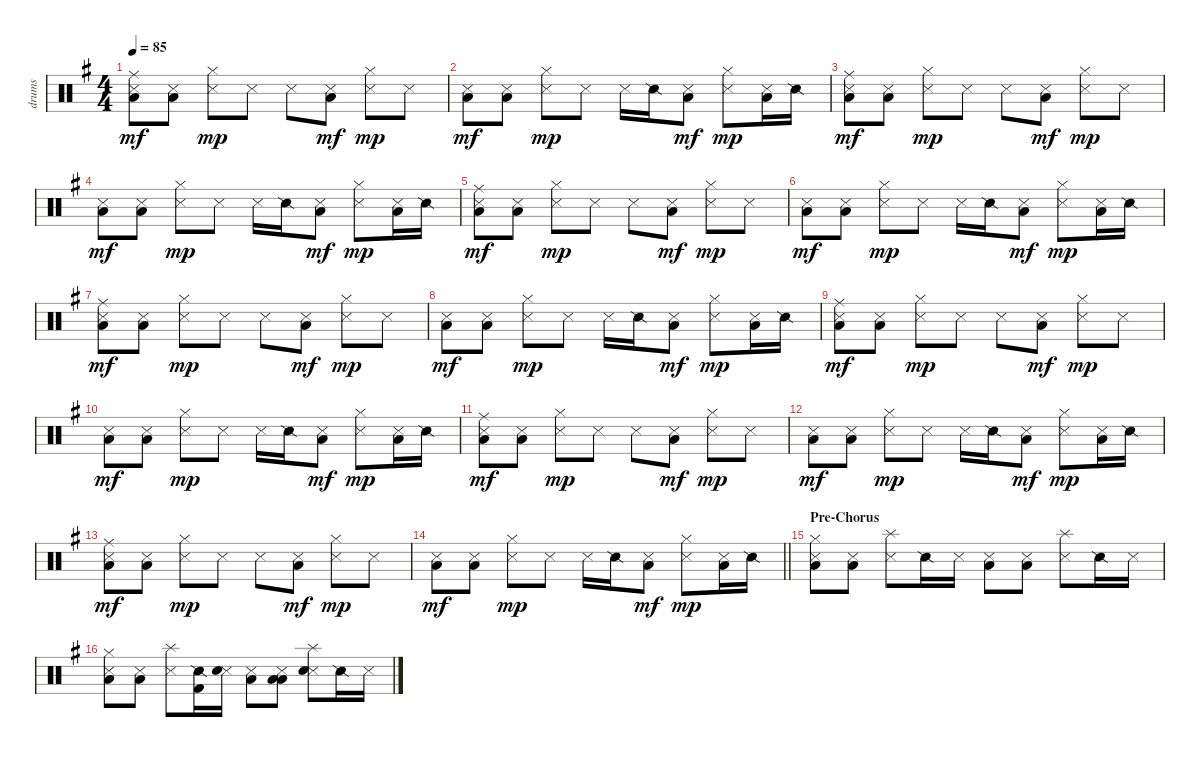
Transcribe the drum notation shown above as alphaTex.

\track ("drums" "drums") {instrument percussion}
\staff {score}
\articulation defaults
\ts (4 4)
\tempo 85
\clef neutral
\ks g
("Ride (middle)" "Snare (side stick) 3" "Low Floor Tom (hit)").8{dy mf} ("Snare (side stick) 3" "Low Floor Tom (hit)").8 ("Hi-Hat (closed)" "Snare (side stick) 3").8{dy mp} "Snare (side stick) 3".8 "Snare (side stick) 3".8 ("Snare (side stick) 3" "Low Floor Tom (hit)").8{dy mf} ("Hi-Hat (closed)" "Snare (side stick) 3").8{dy mp} "Snare (side stick) 3".8 |
("Snare (side stick) 3" "Low Floor Tom (hit)").8{dy mf} ("Snare (side stick) 3" "Low Floor Tom (hit)").8 ("Hi-Hat (closed)" "Snare (side stick) 3").8{dy mp} "Snare (side stick) 3".8 "Snare (side stick) 3".16 "Snare (side stick) 2".16 ("Snare (side stick) 3" "Low Floor Tom (hit)").8{dy mf} ("Hi-Hat (closed)" "Snare (side stick) 3").8{dy mp} ("Snare (side stick) 3" "Low Floor Tom (hit)").16 "Snare (side stick) 2".16 |
("Ride (middle)" "Snare (side stick) 3" "Low Floor Tom (hit)").8{dy mf} ("Snare (side stick) 3" "Low Floor Tom (hit)").8 ("Hi-Hat (closed)" "Snare (side stick) 3").8{dy mp} "Snare (side stick) 3".8 "Snare (side stick) 3".8 ("Snare (side stick) 3" "Low Floor Tom (hit)").8{dy mf} ("Hi-Hat (closed)" "Snare (side stick) 3").8{dy mp} "Snare (side stick) 3".8 |
("Snare (side stick) 3" "Low Floor Tom (hit)").8{dy mf} ("Snare (side stick) 3" "Low Floor Tom (hit)").8 ("Hi-Hat (closed)" "Snare (side stick) 3").8{dy mp} "Snare (side stick) 3".8 "Snare (side stick) 3".16 "Snare (side stick) 2".16 ("Snare (side stick) 3" "Low Floor Tom (hit)").8{dy mf} ("Hi-Hat (closed)" "Snare (side stick) 3").8{dy mp} ("Snare (side stick) 3" "Low Floor Tom (hit)").16 "Snare (side stick) 2".16 |
("Ride (middle)" "Snare (side stick) 3" "Low Floor Tom (hit)").8{dy mf} ("Snare (side stick) 3" "Low Floor Tom (hit)").8 ("Hi-Hat (closed)" "Snare (side stick) 3").8{dy mp} "Snare (side stick) 3".8 "Snare (side stick) 3".8 ("Snare (side stick) 3" "Low Floor Tom (hit)").8{dy mf} ("Hi-Hat (closed)" "Snare (side stick) 3").8{dy mp} "Snare (side stick) 3".8 |
("Snare (side stick) 3" "Low Floor Tom (hit)").8{dy mf} ("Snare (side stick) 3" "Low Floor Tom (hit)").8 ("Hi-Hat (closed)" "Snare (side stick) 3").8{dy mp} "Snare (side stick) 3".8 "Snare (side stick) 3".16 "Snare (side stick) 2".16 ("Snare (side stick) 3" "Low Floor Tom (hit)").8{dy mf} ("Hi-Hat (closed)" "Snare (side stick) 3").8{dy mp} ("Snare (side stick) 3" "Low Floor Tom (hit)").16 "Snare (side stick) 2".16 |
("Ride (middle)" "Snare (side stick) 3" "Low Floor Tom (hit)").8{dy mf} ("Snare (side stick) 3" "Low Floor Tom (hit)").8 ("Hi-Hat (closed)" "Snare (side stick) 3").8{dy mp} "Snare (side stick) 3".8 "Snare (side stick) 3".8 ("Snare (side stick) 3" "Low Floor Tom (hit)").8{dy mf} ("Hi-Hat (closed)" "Snare (side stick) 3").8{dy mp} "Snare (side stick) 3".8 |
("Snare (side stick) 3" "Low Floor Tom (hit)").8{dy mf} ("Snare (side stick) 3" "Low Floor Tom (hit)").8 ("Hi-Hat (closed)" "Snare (side stick) 3").8{dy mp} "Snare (side stick) 3".8 "Snare (side stick) 3".16 "Snare (side stick) 2".16 ("Snare (side stick) 3" "Low Floor Tom (hit)").8{dy mf} ("Hi-Hat (closed)" "Snare (side stick) 3").8{dy mp} ("Snare (side stick) 3" "Low Floor Tom (hit)").16 "Snare (side stick) 2".16 |
("Ride (middle)" "Snare (side stick) 3" "Low Floor Tom (hit)").8{dy mf} ("Snare (side stick) 3" "Low Floor Tom (hit)").8 ("Hi-Hat (closed)" "Snare (side stick) 3").8{dy mp} "Snare (side stick) 3".8 "Snare (side stick) 3".8 ("Snare (side stick) 3" "Low Floor Tom (hit)").8{dy mf} ("Hi-Hat (closed)" "Snare (side stick) 3").8{dy mp} "Snare (side stick) 3".8 |
("Snare (side stick) 3" "Low Floor Tom (hit)").8{dy mf} ("Snare (side stick) 3" "Low Floor Tom (hit)").8 ("Hi-Hat (closed)" "Snare (side stick) 3").8{dy mp} "Snare (side stick) 3".8 "Snare (side stick) 3".16 "Snare (side stick) 2".16 ("Snare (side stick) 3" "Low Floor Tom (hit)").8{dy mf} ("Hi-Hat (closed)" "Snare (side stick) 3").8{dy mp} ("Snare (side stick) 3" "Low Floor Tom (hit)").16 "Snare (side stick) 2".16 |
("Ride (middle)" "Snare (side stick) 3" "Low Floor Tom (hit)").8{dy mf} ("Snare (side stick) 3" "Low Floor Tom (hit)").8 ("Hi-Hat (closed)" "Snare (side stick) 3").8{dy mp} "Snare (side stick) 3".8 "Snare (side stick) 3".8 ("Snare (side stick) 3" "Low Floor Tom (hit)").8{dy mf} ("Hi-Hat (closed)" "Snare (side stick) 3").8{dy mp} "Snare (side stick) 3".8 |
("Snare (side stick) 3" "Low Floor Tom (hit)").8{dy mf} ("Snare (side stick) 3" "Low Floor Tom (hit)").8 ("Hi-Hat (closed)" "Snare (side stick) 3").8{dy mp} "Snare (side stick) 3".8 "Snare (side stick) 3".16 "Snare (side stick) 2".16 ("Snare (side stick) 3" "Low Floor Tom (hit)").8{dy mf} ("Hi-Hat (closed)" "Snare (side stick) 3").8{dy mp} ("Snare (side stick) 3" "Low Floor Tom (hit)").16 "Snare (side stick) 2".16 |
("Ride (middle)" "Snare (side stick) 3" "Low Floor Tom (hit)").8{dy mf} ("Snare (side stick) 3" "Low Floor Tom (hit)").8 ("Hi-Hat (closed)" "Snare (side stick) 3").8{dy mp} "Snare (side stick) 3".8 "Snare (side stick) 3".8 ("Snare (side stick) 3" "Low Floor Tom (hit)").8{dy mf} ("Hi-Hat (closed)" "Snare (side stick) 3").8{dy mp} "Snare (side stick) 3".8 |
\barLineRight lightlight
("Snare (side stick) 3" "Low Floor Tom (hit)").8{dy mf} ("Snare (side stick) 3" "Low Floor Tom (hit)").8 ("Hi-Hat (closed)" "Snare (side stick) 3").8{dy mp} "Snare (side stick) 3".8 "Snare (side stick) 3".16 "Snare (side stick) 2".16 ("Snare (side stick) 3" "Low Floor Tom (hit)").8{dy mf} ("Hi-Hat (closed)" "Snare (side stick) 3").8{dy mp} ("Snare (side stick) 3" "Low Floor Tom (hit)").16 "Snare (side stick) 2".16 |
\section ("" "Pre-Chorus")
("Hi-Hat (closed)" "Snare (side stick) 3" "Low Floor Tom (hit)").8 ("Snare (side stick) 3" "Low Floor Tom (hit)").8 ("Splash (hit)" "Snare (side stick) 3").8 "Snare (side stick) 2".16 "Snare (side stick) 3".16 ("Snare (side stick) 3" "Low Floor Tom (hit)").8 ("Snare (side stick) 3" "Low Floor Tom (hit)").8 ("Splash (hit)" "Snare (side stick) 3").8 "Snare (side stick) 2".16 "Snare (side stick) 3".16 |
("Hi-Hat (closed)" "Snare (side stick) 3" "Low Floor Tom (hit)").8 ("Snare (side stick) 3" "Low Floor Tom (hit)").8 ("Splash (hit)" "Snare (side stick) 3").8 ("Snare (side stick) 2" "Kick (hit) 2").16 ("Snare (side stick) 3" "Snare (hit) 2").16 ("Snare (side stick) 3" "Low Floor Tom (hit)").8 ("Snare (side stick) 3" "Low Tom (hit)" "Low Floor Tom (hit)").8 ("Splash (hit)" "Snare (side stick) 3" "Electric Snare (hit)").8 "Snare (side stick) 2".16 "Snare (side stick) 3".16
